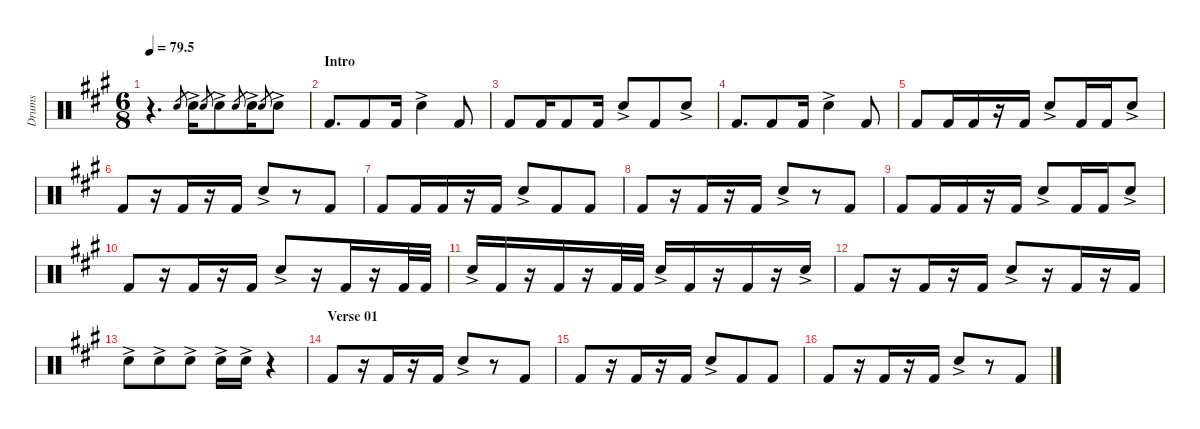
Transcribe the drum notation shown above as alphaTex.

\defaultSystemsLayout 4
\hideDynamics
\bracketExtendMode nobrackets
\otherSystemsTrackNameOrientation horizontal
\track ("F&S" "Drums") {instrument percussion}
\staff {score}
\articulation defaults
\ts (6 8)
\tempo
79.5
\accidentals auto
\clef neutral
\ottava regular
\simile none
\scale
0.474178
\ks a
r.4{d dy mp} "Snare (hit) 2"{acc forcenatural}.8{gr} "Snare (hit) 2"{ac acc forcenatural}.16{dy f} "Snare (hit) 2"{acc forcenatural}.8{gr dy mp} "Snare (hit) 2"{ac acc forcenatural}.8{dy f} "Snare (hit) 2"{acc forcenatural}.8{gr dy mp} "Snare (hit) 2"{ac acc forcenatural}.16{dy f} "Snare (hit) 2"{acc forcenatural}.8{gr dy mp} "Snare (hit) 2"{ac acc forcenatural}.8{dy f} |
\section ("" "Intro")
\scale
0.262911 "Kick (hit) 2"{acc forcenatural}.8{d} "Kick (hit) 2"{acc forcenatural}.8 "Kick (hit) 2"{acc forcenatural}.16 "Snare (hit) 2"{ac acc forcenatural}.4 "Kick (hit) 2"{acc forcenatural}.8 |
\scale
0.262911 "Kick (hit) 2"{acc forcenatural}.8 "Kick (hit) 2"{acc forcenatural}.16 "Kick (hit) 2"{acc forcenatural}.8 "Kick (hit) 2"{acc forcenatural}.16 "Snare (hit) 2"{ac acc forcenatural}.8 "Kick (hit) 2"{acc forcenatural}.8 "Snare (hit) 2"{ac acc forcenatural}.8 |
\scale
0.333333 "Kick (hit) 2"{acc forcenatural}.8{d} "Kick (hit) 2"{acc forcenatural}.8 "Kick (hit) 2"{acc forcenatural}.16 "Snare (hit) 2"{ac acc forcenatural}.4 "Kick (hit) 2"{acc forcenatural}.8 |
\scale
0.333333 "Kick (hit) 2"{acc forcenatural}.8 "Kick (hit) 2"{acc forcenatural}.16 "Kick (hit) 2"{acc forcenatural}.16 r.16 "Kick (hit) 2"{acc forcenatural}.16 "Snare (hit) 2"{ac acc forcenatural}.8 "Kick (hit) 2"{acc forcenatural}.16 "Kick (hit) 2"{acc forcenatural}.16 "Snare (hit) 2"{ac acc forcenatural}.8 |
\scale
0.333333 "Kick (hit) 2"{acc forcenatural}.8 r.16 "Kick (hit) 2"{acc forcenatural}.16 r.16 "Kick (hit) 2"{acc forcenatural}.16 "Snare (hit) 2"{ac acc forcenatural}.8 r.8 "Kick (hit) 2"{acc forcenatural}.8 |
\scale
0.333333 "Kick (hit) 2"{acc forcenatural}.8 "Kick (hit) 2"{acc forcenatural}.16 "Kick (hit) 2"{acc forcenatural}.16 r.16 "Kick (hit) 2"{acc forcenatural}.16 "Snare (hit) 2"{ac acc forcenatural}.8 "Kick (hit) 2"{acc forcenatural}.8 "Kick (hit) 2"{acc forcenatural}.8 |
\scale
0.333333 "Kick (hit) 2"{acc forcenatural}.8 r.16 "Kick (hit) 2"{acc forcenatural}.16 r.16 "Kick (hit) 2"{acc forcenatural}.16 "Snare (hit) 2"{ac acc forcenatural}.8 r.8 "Kick (hit) 2"{acc forcenatural}.8 |
\scale
0.333333 "Kick (hit) 2"{acc forcenatural}.8 "Kick (hit) 2"{acc forcenatural}.16 "Kick (hit) 2"{acc forcenatural}.16 r.16 "Kick (hit) 2"{acc forcenatural}.16 "Snare (hit) 2"{ac acc forcenatural}.8 "Kick (hit) 2"{acc forcenatural}.16 "Kick (hit) 2"{acc forcenatural}.16 "Snare (hit) 2"{ac acc forcenatural}.8 |
\scale
0.333333 "Kick (hit) 2"{acc forcenatural}.8 r.16 "Kick (hit) 2"{acc forcenatural}.16 r.16 "Kick (hit) 2"{acc forcenatural}.16 "Snare (hit) 2"{ac acc forcenatural}.8 r.16 "Kick (hit) 2"{acc forcenatural}.16 r.16 "Kick (hit) 2"{acc forcenatural}.32 "Kick (hit) 2"{acc forcenatural}.32 |
\scale
0.333333 "Snare (hit) 2"{ac acc forcenatural}.16 "Kick (hit) 2"{acc forcenatural}.16 r.16 "Kick (hit) 2"{acc forcenatural}.16 r.16 "Kick (hit) 2"{acc forcenatural}.32 "Kick (hit) 2"{acc forcenatural}.32 "Snare (hit) 2"{ac acc forcenatural}.16 "Kick (hit) 2"{acc forcenatural}.16 r.16 "Kick (hit) 2"{acc forcenatural}.16 r.16 "Snare (hit) 2"{ac acc forcenatural}.16 |
\scale
0.333333 "Kick (hit) 2"{acc forcenatural}.8 r.16 "Kick (hit) 2"{acc forcenatural}.16 r.16 "Kick (hit) 2"{acc forcenatural}.16 "Snare (hit) 2"{ac acc forcenatural}.8 r.16 "Kick (hit) 2"{acc forcenatural}.16 r.16 "Kick (hit) 2"{acc forcenatural}.16 |
\scale
0.333333 "Snare (hit) 2"{ac acc forcenatural}.8 "Snare (hit) 2"{ac acc forcenatural}.8 "Snare (hit) 2"{ac acc forcenatural}.8 "Snare (hit) 2"{ac acc forcenatural}.16 "Snare (hit) 2"{ac acc forcenatural}.16 r.4 |
\section ("" "Verse 01")
\scale
0.333333 "Kick (hit) 2"{acc forcenatural}.8 r.16 "Kick (hit) 2"{acc forcenatural}.16 r.16 "Kick (hit) 2"{acc forcenatural}.16 "Snare (hit) 2"{ac acc forcenatural}.8 r.8 "Kick (hit) 2"{acc forcenatural}.8 |
\scale
0.333333 "Kick (hit) 2"{acc forcenatural}.8 r.16 "Kick (hit) 2"{acc forcenatural}.16 r.16 "Kick (hit) 2"{acc forcenatural}.16 "Snare (hit) 2"{ac acc forcenatural}.8 "Kick (hit) 2"{acc forcenatural}.8 "Kick (hit) 2"{acc forcenatural}.8 |
\scale
0.333333 "Kick (hit) 2"{acc forcenatural}.8 r.16 "Kick (hit) 2"{acc forcenatural}.16 r.16 "Kick (hit) 2"{acc forcenatural}.16 "Snare (hit) 2"{ac acc forcenatural}.8 r.8 "Kick (hit) 2"{acc forcenatural}.8
